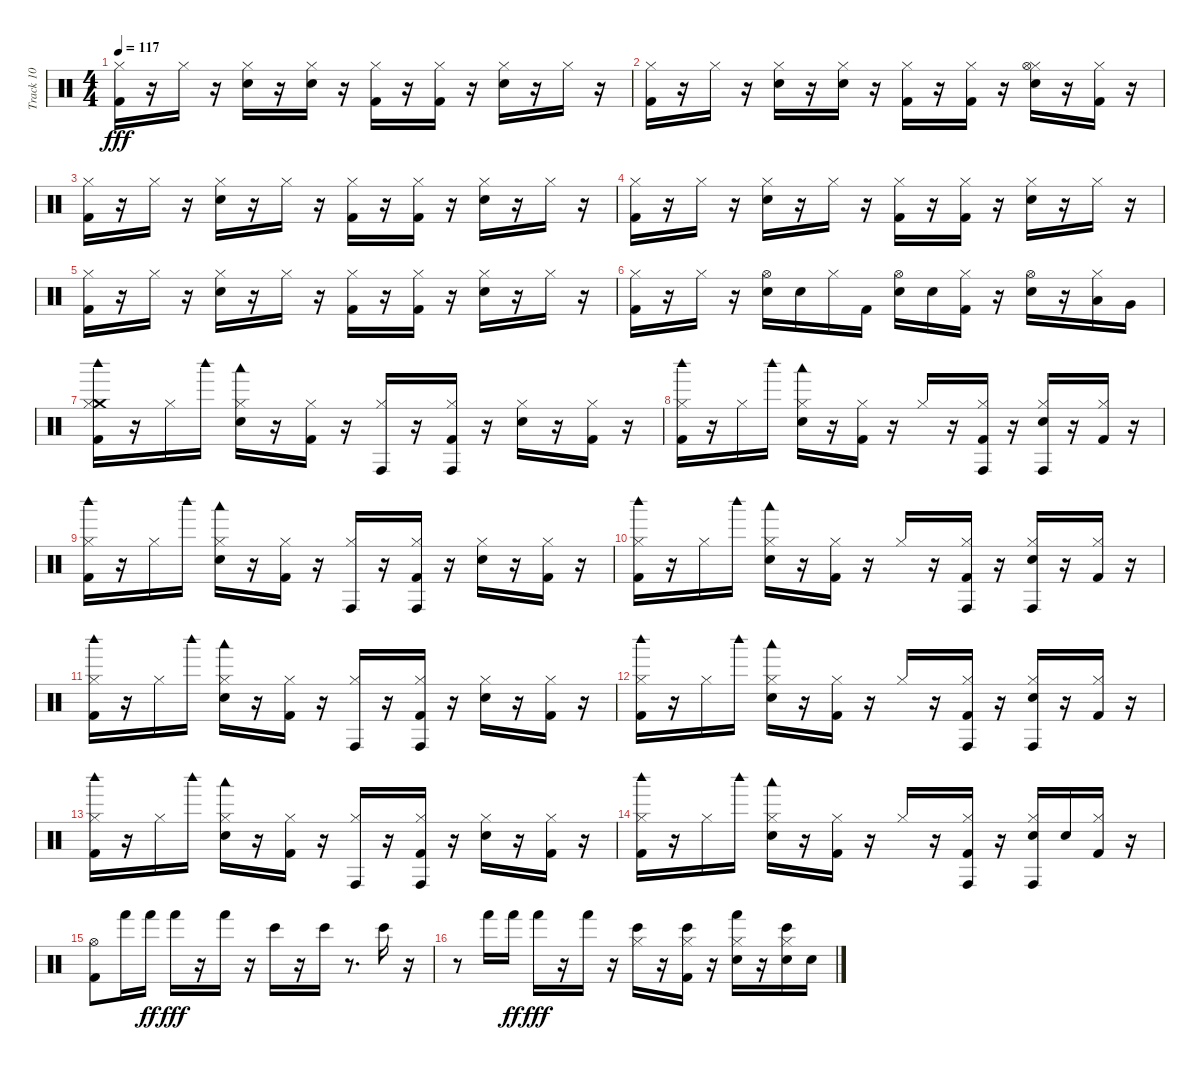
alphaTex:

\track ("Track 10" "Track 10") {instrument percussion}
\staff {score}
\articulation defaults
\ts (4 4)
\tempo 117
\clef neutral
\ks c
("Hi-Hat (closed)" "Kick (hit) 2").16{dy fff} r.16 "Hi-Hat (closed)".16 r.16 ("Hi-Hat (closed)" "Snare (hit) 2").16 r.16 ("Hi-Hat (closed)" "Snare (hit) 2").16 r.16 ("Hi-Hat (closed)" "Kick (hit) 2").16 r.16 ("Hi-Hat (closed)" "Kick (hit) 2").16 r.16 ("Hi-Hat (closed)" "Snare (hit) 2").16 r.16 "Hi-Hat (closed)".16 r.16 |
("Hi-Hat (closed)" "Kick (hit) 2").16 r.16 "Hi-Hat (closed)".16 r.16 ("Hi-Hat (closed)" "Snare (hit) 2").16 r.16 ("Hi-Hat (closed)" "Snare (hit) 2").16 r.16 ("Hi-Hat (closed)" "Kick (hit) 2").16 r.16 ("Hi-Hat (closed)" "Kick (hit) 2").16 r.16 ("Hi-Hat (closed)" "Hi-Hat (open)" "Snare (hit) 2").16 r.16 ("Hi-Hat (closed)" "Kick (hit) 2").16 r.16 |
("Hi-Hat (closed)" "Kick (hit) 2").16 r.16 "Hi-Hat (closed)".16 r.16 ("Hi-Hat (closed)" "Snare (hit) 2").16 r.16 "Hi-Hat (closed)".16 r.16 ("Hi-Hat (closed)" "Kick (hit) 2").16 r.16 ("Hi-Hat (closed)" "Kick (hit) 2").16 r.16 ("Hi-Hat (closed)" "Snare (hit) 2").16 r.16 "Hi-Hat (closed)".16 r.16 |
("Hi-Hat (closed)" "Kick (hit) 2").16 r.16 "Hi-Hat (closed)".16 r.16 ("Hi-Hat (closed)" "Snare (hit) 2").16 r.16 "Hi-Hat (closed)".16 r.16 ("Hi-Hat (closed)" "Kick (hit) 2").16 r.16 ("Hi-Hat (closed)" "Kick (hit) 2").16 r.16 ("Hi-Hat (closed)" "Snare (hit) 2").16 r.16 "Hi-Hat (closed)".16 r.16 |
("Hi-Hat (closed)" "Kick (hit) 2").16 r.16 "Hi-Hat (closed)".16 r.16 ("Hi-Hat (closed)" "Snare (hit) 2").16 r.16 "Hi-Hat (closed)".16 r.16 ("Hi-Hat (closed)" "Kick (hit) 2").16 r.16 ("Hi-Hat (closed)" "Kick (hit) 2").16 r.16 ("Hi-Hat (closed)" "Snare (hit) 2").16 r.16 "Hi-Hat (closed)".16 r.16 |
("Hi-Hat (closed)" "Kick (hit) 2").16 r.16 "Hi-Hat (closed)".16 r.16 ("Hi-Hat (open)" "Snare (hit) 2").16 "Snare (hit) 2".16 "Hi-Hat (closed)".16 "Kick (hit) 2".16 ("Hi-Hat (open)" "Snare (hit) 2").16 "Snare (hit) 2".16 ("Hi-Hat (closed)" "Kick (hit) 2").16 r.16 ("Hi-Hat (open)" "Snare (hit) 2").16 r.16 ("Hi-Hat (closed)" "Low Tom (hit)").16 "Very Low Tom (hit)".16 |
("Crash medium (hit)" "Kick (hit) 2" "Hi-Hat (closed)" "Woodblock high (hit)").16 r.16 "Hi-Hat (closed)".16 "Woodblock high (hit)".16 ("Snare (hit) 2" "Hi-Hat (closed)" "Woodblock low (hit)").16 r.16 ("Kick (hit) 2" "Hi-Hat (closed)").16 r.16 ("Hi-Hat (closed)" "Conga high (hit)").16 r.16 ("Kick (hit) 2" "Hi-Hat (closed)" "Conga high (hit)").16 r.16 ("Snare (hit) 2" "Hi-Hat (closed)").16 r.16 ("Kick (hit) 2" "Hi-Hat (closed)").16 r.16 |
("Kick (hit) 2" "Hi-Hat (closed)" "Woodblock high (hit)").16 r.16 "Hi-Hat (closed)".16 "Woodblock high (hit)".16 ("Snare (hit) 2" "Hi-Hat (closed)" "Woodblock low (hit)").16 r.16 ("Kick (hit) 2" "Hi-Hat (closed)").16 r.16 "Hi-Hat (closed)".16 r.16 ("Kick (hit) 2" "Hi-Hat (closed)" "Conga high (hit)").16 r.16 ("Snare (hit) 2" "Hi-Hat (closed)" "Conga high (hit)").16 r.16 ("Kick (hit) 2" "Hi-Hat (closed)").16 r.16 |
("Hi-Hat (closed)" "Kick (hit) 2" "Woodblock high (hit)").16 r.16 "Hi-Hat (closed)".16 "Woodblock high (hit)".16 ("Hi-Hat (closed)" "Snare (hit) 2" "Woodblock low (hit)").16 r.16 ("Hi-Hat (closed)" "Kick (hit) 2").16 r.16 ("Hi-Hat (closed)" "Conga high (hit)").16 r.16 ("Hi-Hat (closed)" "Kick (hit) 2" "Conga high (hit)").16 r.16 ("Hi-Hat (closed)" "Snare (hit) 2").16 r.16 ("Hi-Hat (closed)" "Kick (hit) 2").16 r.16 |
("Hi-Hat (closed)" "Kick (hit) 2" "Woodblock high (hit)").16 r.16 "Hi-Hat (closed)".16 "Woodblock high (hit)".16 ("Hi-Hat (closed)" "Snare (hit) 2" "Woodblock low (hit)").16 r.16 ("Hi-Hat (closed)" "Kick (hit) 2").16 r.16 "Hi-Hat (closed)".16 r.16 ("Hi-Hat (closed)" "Kick (hit) 2" "Conga high (hit)").16 r.16 ("Hi-Hat (closed)" "Snare (hit) 2" "Conga high (hit)").16 r.16 ("Hi-Hat (closed)" "Kick (hit) 2").16 r.16 |
("Kick (hit) 2" "Hi-Hat (closed)" "Woodblock high (hit)").16 r.16 "Hi-Hat (closed)".16 "Woodblock high (hit)".16 ("Snare (hit) 2" "Hi-Hat (closed)" "Woodblock low (hit)").16 r.16 ("Kick (hit) 2" "Hi-Hat (closed)").16 r.16 ("Hi-Hat (closed)" "Conga high (hit)").16 r.16 ("Kick (hit) 2" "Hi-Hat (closed)" "Conga high (hit)").16 r.16 ("Snare (hit) 2" "Hi-Hat (closed)").16 r.16 ("Kick (hit) 2" "Hi-Hat (closed)").16 r.16 |
("Kick (hit) 2" "Hi-Hat (closed)" "Woodblock high (hit)").16 r.16 "Hi-Hat (closed)".16 "Woodblock high (hit)".16 ("Snare (hit) 2" "Hi-Hat (closed)" "Woodblock low (hit)").16 r.16 ("Kick (hit) 2" "Hi-Hat (closed)").16 r.16 "Hi-Hat (closed)".16 r.16 ("Kick (hit) 2" "Hi-Hat (closed)" "Conga high (hit)").16 r.16 ("Snare (hit) 2" "Hi-Hat (closed)" "Conga high (hit)").16 r.16 ("Kick (hit) 2" "Hi-Hat (closed)").16 r.16 |
("Kick (hit) 2" "Hi-Hat (closed)" "Woodblock high (hit)").16 r.16 "Hi-Hat (closed)".16 "Woodblock high (hit)".16 ("Snare (hit) 2" "Hi-Hat (closed)" "Woodblock low (hit)").16 r.16 ("Kick (hit) 2" "Hi-Hat (closed)").16 r.16 ("Hi-Hat (closed)" "Conga high (hit)").16 r.16 ("Kick (hit) 2" "Hi-Hat (closed)" "Conga high (hit)").16 r.16 ("Snare (hit) 2" "Hi-Hat (closed)").16 r.16 ("Kick (hit) 2" "Hi-Hat (closed)").16 r.16 |
("Kick (hit) 2" "Hi-Hat (closed)" "Woodblock high (hit)").16 r.16 "Hi-Hat (closed)".16 "Woodblock high (hit)".16 ("Snare (hit) 2" "Hi-Hat (closed)" "Woodblock low (hit)").16 r.16 ("Kick (hit) 2" "Hi-Hat (closed)").16 r.16 "Hi-Hat (closed)".16 r.16 ("Kick (hit) 2" "Hi-Hat (closed)" "Conga high (hit)").16 r.16 ("Snare (hit) 2" "Hi-Hat (closed)" "Conga high (hit)").16 "Snare (hit) 2".16 ("Kick (hit) 2" "Hi-Hat (closed)").16 r.16 |
("Kick (hit) 2" "Hi-Hat (open)").8 "Hand (hit)".16 "Hand (hit)".16{dy ff} "Hand (hit)".16{dy fff} r.16 "Hand (hit)".16 r.16 "Bongo High (hit)".16 r.16 "Bongo High (hit)".16 r.8{d} "Bongo High (hit)".16 r.16 |
r.8 "Hand (hit)".16 "Hand (hit)".16{dy ff} "Hand (hit)".16{dy fff} r.16 "Hand (hit)".16 r.16 ("Hi-Hat (closed)" "Bongo High (hit)").16 r.16 ("Hi-Hat (closed)" "Bongo High (hit)" "Kick (hit) 2").16 r.16 ("Hi-Hat (closed)" "Hand (hit)" "Snare (hit) 2").16 r.16 ("Hi-Hat (closed)" "Bongo High (hit)" "Snare (hit) 2").16 "Snare (hit) 2".16
